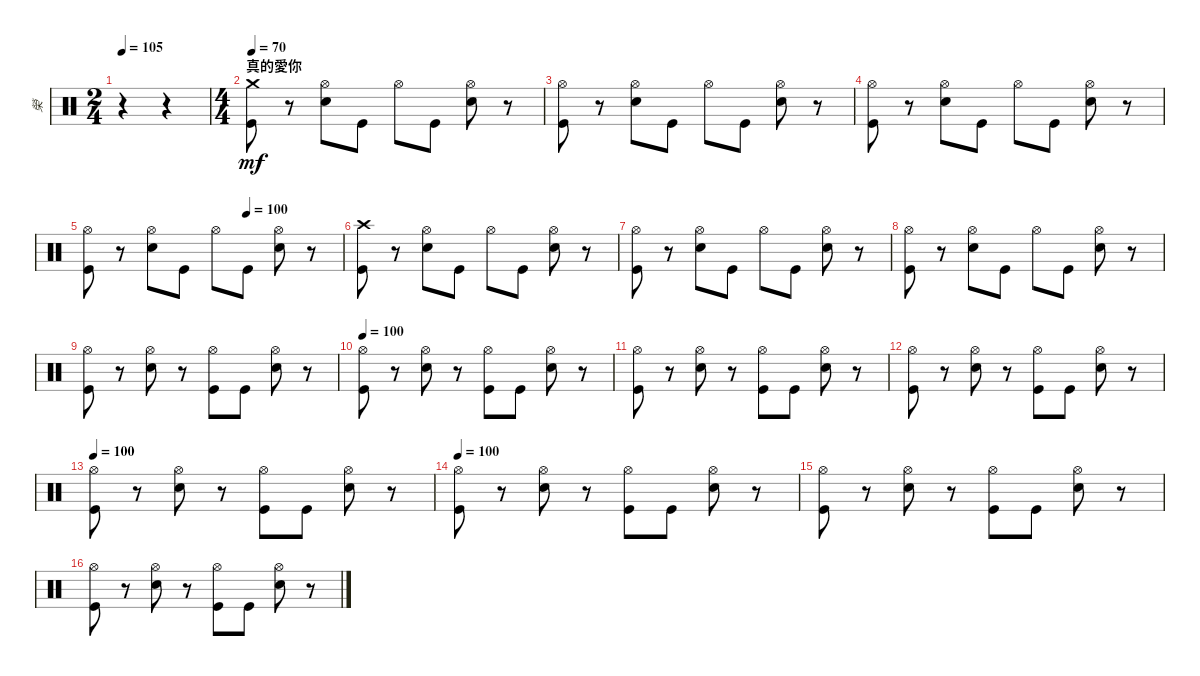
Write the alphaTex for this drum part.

\track ("榮" "榮") {instrument percussion}
\staff {score}
\articulation defaults
\ts (2 4)
\tempo 105
\tempo 75
\tempo 105
\clef neutral
\ks c
r.4{dy mf} r.4 |
\ts (4 4)
\section ("" "真的愛你")
\tempo 70
("Crash medium (hit)" "Kick (hit)").8 r.8 ("Hi-Hat (open)" "Snare (hit) 2").8 "Kick (hit)".8 "Hi-Hat (open)".8 "Kick (hit)".8 ("Hi-Hat (open)" "Snare (hit) 2").8 r.8 |
("Hi-Hat (open)" "Kick (hit)").8 r.8 ("Hi-Hat (open)" "Snare (hit) 2").8 "Kick (hit)".8 "Hi-Hat (open)".8 "Kick (hit)".8 ("Hi-Hat (open)" "Snare (hit) 2").8 r.8 |
("Hi-Hat (open)" "Kick (hit)").8 r.8 ("Hi-Hat (open)" "Snare (hit) 2").8 "Kick (hit)".8 "Hi-Hat (open)".8 "Kick (hit)".8 ("Hi-Hat (open)" "Snare (hit) 2").8 r.8 |
\tempo (100 0.625)
("Hi-Hat (open)" "Kick (hit)").8 r.8 ("Hi-Hat (open)" "Snare (hit) 2").8 "Kick (hit)".8 "Hi-Hat (open)".8 "Kick (hit)".8 ("Hi-Hat (open)" "Snare (hit) 2").8 r.8 |
("Crash high (hit)" "Kick (hit)").8 r.8 ("Hi-Hat (open)" "Snare (hit) 2").8 "Kick (hit)".8 "Hi-Hat (open)".8 "Kick (hit)".8 ("Hi-Hat (open)" "Snare (hit) 2").8 r.8 |
("Hi-Hat (open)" "Kick (hit)").8 r.8 ("Hi-Hat (open)" "Snare (hit) 2").8 "Kick (hit)".8 "Hi-Hat (open)".8 "Kick (hit)".8 ("Hi-Hat (open)" "Snare (hit) 2").8 r.8 |
("Hi-Hat (open)" "Kick (hit)").8 r.8 ("Hi-Hat (open)" "Snare (hit) 2").8 "Kick (hit)".8 "Hi-Hat (open)".8 "Kick (hit)".8 ("Hi-Hat (open)" "Snare (hit) 2").8 r.8 |
("Hi-Hat (open)" "Kick (hit)").8 r.8 ("Hi-Hat (open)" "Snare (hit) 2").8 r.8 ("Hi-Hat (open)" "Kick (hit)").8 "Kick (hit)".8 ("Hi-Hat (open)" "Snare (hit) 2").8 r.8 |
\tempo 100
("Hi-Hat (open)" "Kick (hit)").8 r.8 ("Hi-Hat (open)" "Snare (hit) 2").8 r.8 ("Hi-Hat (open)" "Kick (hit)").8 "Kick (hit)".8 ("Hi-Hat (open)" "Snare (hit) 2").8 r.8 |
("Hi-Hat (open)" "Kick (hit)").8 r.8 ("Hi-Hat (open)" "Snare (hit) 2").8 r.8 ("Hi-Hat (open)" "Kick (hit)").8 "Kick (hit)".8 ("Hi-Hat (open)" "Snare (hit) 2").8 r.8 |
("Hi-Hat (open)" "Kick (hit)").8 r.8 ("Hi-Hat (open)" "Snare (hit) 2").8 r.8 ("Hi-Hat (open)" "Kick (hit)").8 "Kick (hit)".8 ("Hi-Hat (open)" "Snare (hit) 2").8 r.8 |
\tempo 100
("Hi-Hat (open)" "Kick (hit)").8 r.8 ("Hi-Hat (open)" "Snare (hit) 2").8 r.8 ("Hi-Hat (open)" "Kick (hit)").8 "Kick (hit)".8 ("Hi-Hat (open)" "Snare (hit) 2").8 r.8 |
\tempo 100
("Hi-Hat (open)" "Kick (hit)").8 r.8 ("Hi-Hat (open)" "Snare (hit) 2").8 r.8 ("Hi-Hat (open)" "Kick (hit)").8 "Kick (hit)".8 ("Hi-Hat (open)" "Snare (hit) 2").8 r.8 |
("Hi-Hat (open)" "Kick (hit)").8 r.8 ("Hi-Hat (open)" "Snare (hit) 2").8 r.8 ("Hi-Hat (open)" "Kick (hit)").8 "Kick (hit)".8 ("Hi-Hat (open)" "Snare (hit) 2").8 r.8 |
("Hi-Hat (open)" "Kick (hit)").8 r.8 ("Hi-Hat (open)" "Snare (hit) 2").8 r.8 ("Hi-Hat (open)" "Kick (hit)").8 "Kick (hit)".8 ("Hi-Hat (open)" "Snare (hit) 2").8 r.8
